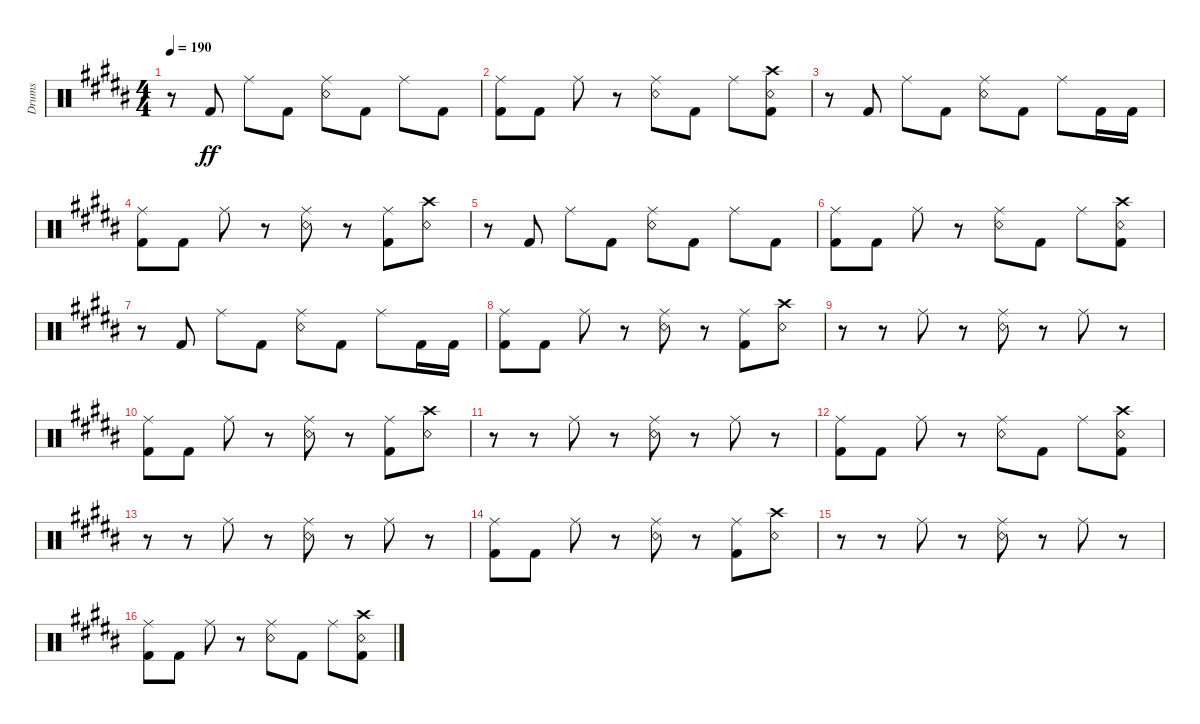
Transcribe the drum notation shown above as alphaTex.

\bracketExtendMode groupsimilarinstruments
\otherSystemsTrackNameOrientation horizontal
\track ("Drumkit" "Drums") {instrument percussion}
\staff {score}
\articulation defaults
\ts (4 4)
\tempo 190
\clef neutral
\ks b
r.8{dy ff} "Kick (hit) 2"{acc forcenatural}.8 "Ride (middle)"{acc forcenatural}.8 "Kick (hit) 2"{acc forcenatural}.8 ("Snare (rim shot)"{acc forcenatural} "Ride (middle)"{acc forcenatural}).8 "Kick (hit) 2"{acc forcenatural}.8 "Ride (middle)"{acc forcenatural}.8 "Kick (hit) 2"{acc forcenatural}.8 |
("Kick (hit) 2"{acc forcenatural} "Ride (middle)"{acc forcenatural}).8 "Kick (hit) 2"{acc forcenatural}.8 "Ride (middle)"{acc forcenatural}.8 r.8 ("Snare (rim shot)"{acc forcenatural} "Ride (middle)"{acc forcenatural}).8 "Kick (hit) 2"{acc forcenatural}.8 "Ride (middle)"{acc forcenatural}.8 ("Kick (hit) 2"{acc forcenatural} "Crash high (hit)"{acc forcenatural} "Snare (rim shot)"{acc forcenatural}).8 |
r.8 "Kick (hit) 2"{acc forcenatural}.8 "Ride (middle)"{acc forcenatural}.8 "Kick (hit) 2"{acc forcenatural}.8 ("Snare (rim shot)"{acc forcenatural} "Ride (middle)"{acc forcenatural}).8 "Kick (hit) 2"{acc forcenatural}.8 "Ride (middle)"{acc forcenatural}.8 "Kick (hit) 2"{acc forcenatural}.16 "Kick (hit) 2"{acc forcenatural}.16 |
("Kick (hit) 2"{acc forcenatural} "Ride (middle)"{acc forcenatural}).8 "Kick (hit) 2"{acc forcenatural}.8 "Ride (middle)"{acc forcenatural}.8 r.8 ("Snare (rim shot)"{acc forcenatural} "Ride (middle)"{acc forcenatural}).8 r.8 ("Kick (hit) 2"{acc forcenatural} "Ride (middle)"{acc forcenatural}).8 ("Crash high (hit)"{acc forcenatural} "Snare (rim shot)"{acc forcenatural}).8 |
r.8 "Kick (hit) 2"{acc forcenatural}.8 "Ride (middle)"{acc forcenatural}.8 "Kick (hit) 2"{acc forcenatural}.8 ("Snare (rim shot)"{acc forcenatural} "Ride (middle)"{acc forcenatural}).8 "Kick (hit) 2"{acc forcenatural}.8 "Ride (middle)"{acc forcenatural}.8 "Kick (hit) 2"{acc forcenatural}.8 |
("Kick (hit) 2"{acc forcenatural} "Ride (middle)"{acc forcenatural}).8 "Kick (hit) 2"{acc forcenatural}.8 "Ride (middle)"{acc forcenatural}.8 r.8 ("Snare (rim shot)"{acc forcenatural} "Ride (middle)"{acc forcenatural}).8 "Kick (hit) 2"{acc forcenatural}.8 "Ride (middle)"{acc forcenatural}.8 ("Kick (hit) 2"{acc forcenatural} "Crash high (hit)"{acc forcenatural} "Snare (rim shot)"{acc forcenatural}).8 |
r.8 "Kick (hit) 2"{acc forcenatural}.8 "Ride (middle)"{acc forcenatural}.8 "Kick (hit) 2"{acc forcenatural}.8 ("Snare (rim shot)"{acc forcenatural} "Ride (middle)"{acc forcenatural}).8 "Kick (hit) 2"{acc forcenatural}.8 "Ride (middle)"{acc forcenatural}.8 "Kick (hit) 2"{acc forcenatural}.16 "Kick (hit) 2"{acc forcenatural}.16 |
("Kick (hit) 2"{acc forcenatural} "Ride (middle)"{acc forcenatural}).8 "Kick (hit) 2"{acc forcenatural}.8 "Ride (middle)"{acc forcenatural}.8 r.8 ("Snare (rim shot)"{acc forcenatural} "Ride (middle)"{acc forcenatural}).8 r.8 ("Kick (hit) 2"{acc forcenatural} "Ride (middle)"{acc forcenatural}).8 ("Crash high (hit)"{acc forcenatural} "Snare (rim shot)"{acc forcenatural}).8 |
r.8 r.8 "Ride (middle)"{acc forcenatural}.8 r.8 ("Snare (rim shot)"{acc forcenatural} "Ride (middle)"{acc forcenatural}).8 r.8 "Ride (middle)"{acc forcenatural}.8 r.8 |
("Kick (hit) 2"{acc forcenatural} "Ride (middle)"{acc forcenatural}).8 "Kick (hit) 2"{acc forcenatural}.8 "Ride (middle)"{acc forcenatural}.8 r.8 ("Snare (rim shot)"{acc forcenatural} "Ride (middle)"{acc forcenatural}).8 r.8 ("Kick (hit) 2"{acc forcenatural} "Ride (middle)"{acc forcenatural}).8 ("Crash high (hit)"{acc forcenatural} "Snare (rim shot)"{acc forcenatural}).8 |
r.8 r.8 "Ride (middle)"{acc forcenatural}.8 r.8 ("Snare (rim shot)"{acc forcenatural} "Ride (middle)"{acc forcenatural}).8 r.8 "Ride (middle)"{acc forcenatural}.8 r.8 |
("Kick (hit) 2"{acc forcenatural} "Ride (middle)"{acc forcenatural}).8 "Kick (hit) 2"{acc forcenatural}.8 "Ride (middle)"{acc forcenatural}.8 r.8 ("Snare (rim shot)"{acc forcenatural} "Ride (middle)"{acc forcenatural}).8 "Kick (hit) 2"{acc forcenatural}.8 "Ride (middle)"{acc forcenatural}.8 ("Kick (hit) 2"{acc forcenatural} "Crash high (hit)"{acc forcenatural} "Snare (rim shot)"{acc forcenatural}).8 |
r.8 r.8 "Ride (middle)"{acc forcenatural}.8 r.8 ("Snare (rim shot)"{acc forcenatural} "Ride (middle)"{acc forcenatural}).8 r.8 "Ride (middle)"{acc forcenatural}.8 r.8 |
("Kick (hit) 2"{acc forcenatural} "Ride (middle)"{acc forcenatural}).8 "Kick (hit) 2"{acc forcenatural}.8 "Ride (middle)"{acc forcenatural}.8 r.8 ("Snare (rim shot)"{acc forcenatural} "Ride (middle)"{acc forcenatural}).8 r.8 ("Kick (hit) 2"{acc forcenatural} "Ride (middle)"{acc forcenatural}).8 ("Crash high (hit)"{acc forcenatural} "Snare (rim shot)"{acc forcenatural}).8 |
r.8 r.8 "Ride (middle)"{acc forcenatural}.8 r.8 ("Snare (rim shot)"{acc forcenatural} "Ride (middle)"{acc forcenatural}).8 r.8 "Ride (middle)"{acc forcenatural}.8 r.8 |
("Kick (hit) 2"{acc forcenatural} "Ride (middle)"{acc forcenatural}).8 "Kick (hit) 2"{acc forcenatural}.8 "Ride (middle)"{acc forcenatural}.8 r.8 ("Snare (rim shot)"{acc forcenatural} "Ride (middle)"{acc forcenatural}).8 "Kick (hit) 2"{acc forcenatural}.8 "Ride (middle)"{acc forcenatural}.8 ("Kick (hit) 2"{acc forcenatural} "Crash high (hit)"{acc forcenatural} "Snare (rim shot)"{acc forcenatural}).8
